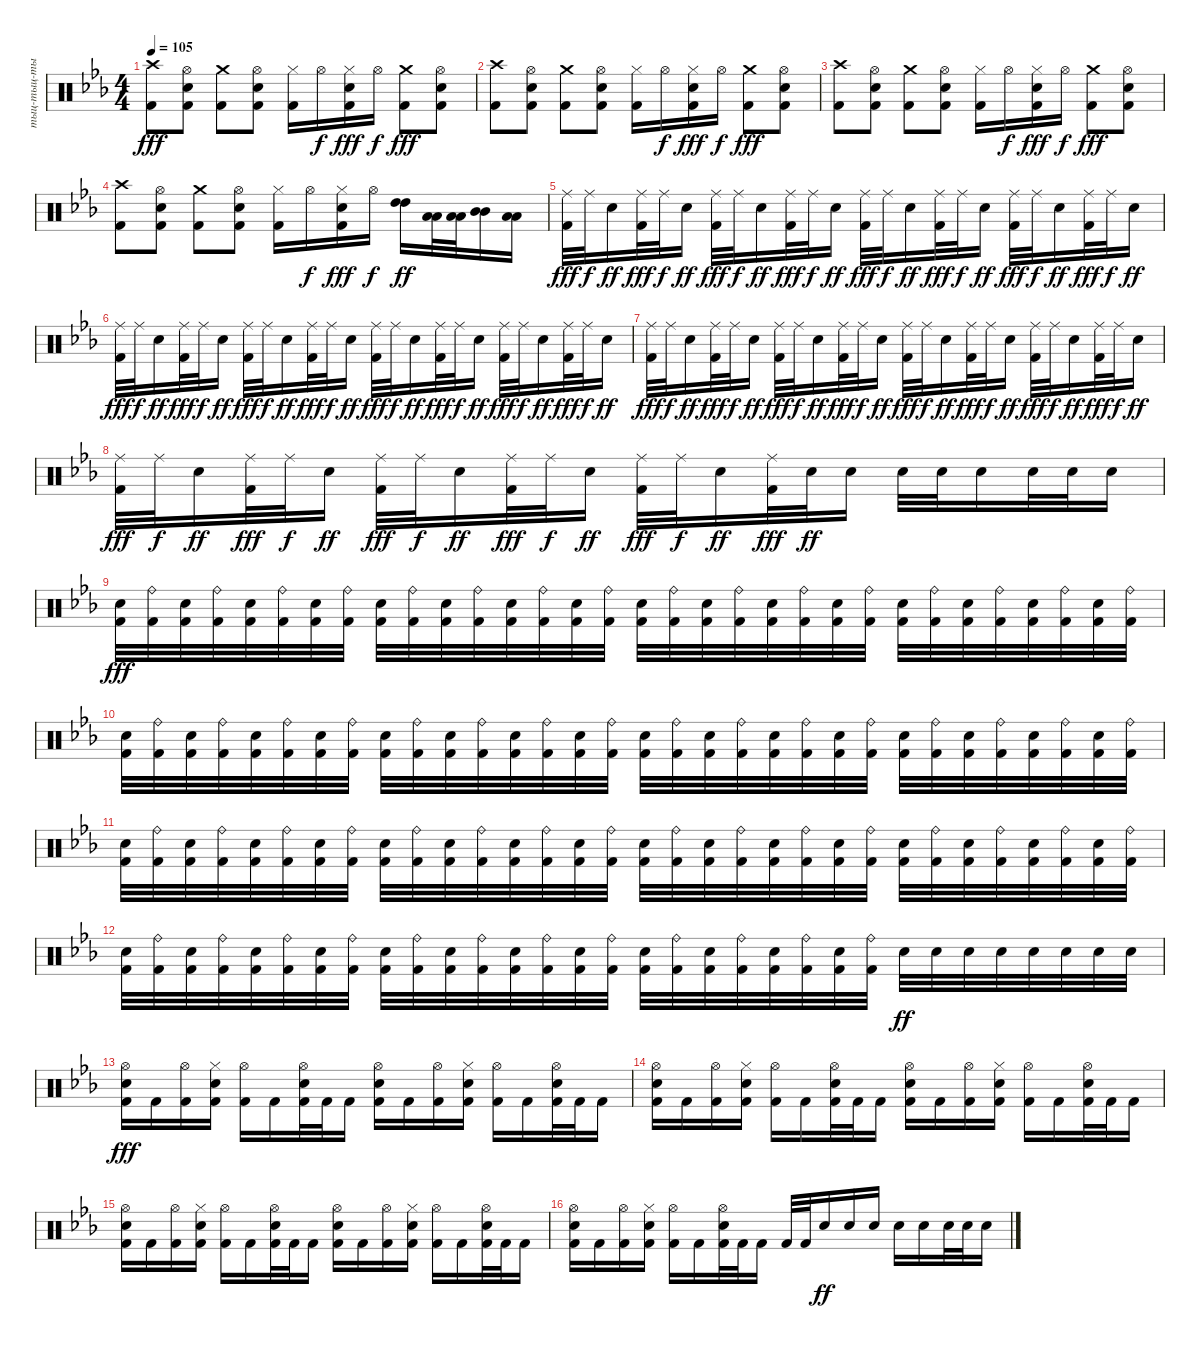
\track ("тыц-тыц-тыц..." "тыц-тыц-ты") {instrument percussion}
\staff
\articulation defaults
\ts (4 4)
\tempo 105
\clef neutral
\ks cminor
("Crash high (hit)" "Kick (hit) 2").8{dy fff} ("Hi-Hat (open)" "Electric Snare (hit)" "Kick (hit) 2").8 ("Crash medium (hit)" "Kick (hit) 2").8 ("Hi-Hat (open)" "Electric Snare (hit)" "Kick (hit) 2").8 ("Hi-Hat (closed)" "Kick (hit) 2").16 "Hi-Hat (open)".16{dy f} ("Hi-Hat (closed)" "Electric Snare (hit)" "Kick (hit) 2").16{dy fff} "Hi-Hat (open)".16{dy f} ("Crash medium (hit)" "Kick (hit) 2").8{dy fff} ("Hi-Hat (open)" "Electric Snare (hit)" "Kick (hit) 2").8 |
("Crash high (hit)" "Kick (hit) 2").8 ("Hi-Hat (open)" "Electric Snare (hit)" "Kick (hit) 2").8 ("Crash medium (hit)" "Kick (hit) 2").8 ("Hi-Hat (open)" "Electric Snare (hit)" "Kick (hit) 2").8 ("Hi-Hat (closed)" "Kick (hit) 2").16 "Hi-Hat (open)".16{dy f} ("Hi-Hat (closed)" "Electric Snare (hit)" "Kick (hit) 2").16{dy fff} "Hi-Hat (open)".16{dy f} ("Crash medium (hit)" "Kick (hit) 2").8{dy fff} ("Hi-Hat (open)" "Electric Snare (hit)" "Kick (hit) 2").8 |
("Crash high (hit)" "Kick (hit) 2").8 ("Hi-Hat (open)" "Electric Snare (hit)" "Kick (hit) 2").8 ("Crash medium (hit)" "Kick (hit) 2").8 ("Hi-Hat (open)" "Electric Snare (hit)" "Kick (hit) 2").8 ("Hi-Hat (closed)" "Kick (hit) 2").16 "Hi-Hat (open)".16{dy f} ("Hi-Hat (closed)" "Electric Snare (hit)" "Kick (hit) 2").16{dy fff} "Hi-Hat (open)".16{dy f} ("Crash medium (hit)" "Kick (hit) 2").8{dy fff} ("Hi-Hat (open)" "Electric Snare (hit)" "Kick (hit) 2").8 |
("Crash high (hit)" "Kick (hit) 2").8 ("Hi-Hat (open)" "Electric Snare (hit)" "Kick (hit) 2").8 ("Crash medium (hit)" "Kick (hit) 2").8 ("Hi-Hat (open)" "Electric Snare (hit)" "Kick (hit) 2").8 ("Hi-Hat (closed)" "Kick (hit) 2").16 "Hi-Hat (open)".16{dy f} ("Hi-Hat (closed)" "Electric Snare (hit)" "Kick (hit) 2").16{dy fff} "Hi-Hat (open)".16{dy f} ("High Tom (hit)" "High Tom (hit)").16{dy ff} ("Low Tom (hit)" "Low Tom (hit)").32 ("Low Tom (hit)" "Low Tom (hit)").32 ("Mid Tom (hit)" "Mid Tom (hit)").16 ("Low Tom (hit)" "Low Tom (hit)").16 |
("Ride (middle)" "Kick (hit) 2").32{dy fff} "Ride (middle)".32{dy f} "Electric Snare (hit)".16{dy ff} ("Ride (middle)" "Kick (hit) 2").32{dy fff} "Ride (middle)".32{dy f} "Electric Snare (hit)".16{dy ff} ("Ride (middle)" "Kick (hit) 2").32{dy fff} "Ride (middle)".32{dy f} "Electric Snare (hit)".16{dy ff} ("Ride (middle)" "Kick (hit) 2").32{dy fff} "Ride (middle)".32{dy f} "Electric Snare (hit)".16{dy ff} ("Ride (middle)" "Kick (hit) 2").32{dy fff} "Ride (middle)".32{dy f} "Electric Snare (hit)".16{dy ff} ("Ride (middle)" "Kick (hit) 2").32{dy fff} "Ride (middle)".32{dy f} "Electric Snare (hit)".16{dy ff} ("Ride (middle)" "Kick (hit) 2").32{dy fff} "Ride (middle)".32{dy f} "Electric Snare (hit)".16{dy ff} ("Ride (middle)" "Kick (hit) 2").32{dy fff} "Ride (middle)".32{dy f} "Electric Snare (hit)".16{dy ff} |
("Ride (middle)" "Kick (hit) 2").32{dy fff} "Ride (middle)".32{dy f} "Electric Snare (hit)".16{dy ff} ("Ride (middle)" "Kick (hit) 2").32{dy fff} "Ride (middle)".32{dy f} "Electric Snare (hit)".16{dy ff} ("Ride (middle)" "Kick (hit) 2").32{dy fff} "Ride (middle)".32{dy f} "Electric Snare (hit)".16{dy ff} ("Ride (middle)" "Kick (hit) 2").32{dy fff} "Ride (middle)".32{dy f} "Electric Snare (hit)".16{dy ff} ("Ride (middle)" "Kick (hit) 2").32{dy fff} "Ride (middle)".32{dy f} "Electric Snare (hit)".16{dy ff} ("Ride (middle)" "Kick (hit) 2").32{dy fff} "Ride (middle)".32{dy f} "Electric Snare (hit)".16{dy ff} ("Ride (middle)" "Kick (hit) 2").32{dy fff} "Ride (middle)".32{dy f} "Electric Snare (hit)".16{dy ff} ("Ride (middle)" "Kick (hit) 2").32{dy fff} "Ride (middle)".32{dy f} "Electric Snare (hit)".16{dy ff} |
("Ride (middle)" "Kick (hit) 2").32{dy fff} "Ride (middle)".32{dy f} "Electric Snare (hit)".16{dy ff} ("Ride (middle)" "Kick (hit) 2").32{dy fff} "Ride (middle)".32{dy f} "Electric Snare (hit)".16{dy ff} ("Ride (middle)" "Kick (hit) 2").32{dy fff} "Ride (middle)".32{dy f} "Electric Snare (hit)".16{dy ff} ("Ride (middle)" "Kick (hit) 2").32{dy fff} "Ride (middle)".32{dy f} "Electric Snare (hit)".16{dy ff} ("Ride (middle)" "Kick (hit) 2").32{dy fff} "Ride (middle)".32{dy f} "Electric Snare (hit)".16{dy ff} ("Ride (middle)" "Kick (hit) 2").32{dy fff} "Ride (middle)".32{dy f} "Electric Snare (hit)".16{dy ff} ("Ride (middle)" "Kick (hit) 2").32{dy fff} "Ride (middle)".32{dy f} "Electric Snare (hit)".16{dy ff} ("Ride (middle)" "Kick (hit) 2").32{dy fff} "Ride (middle)".32{dy f} "Electric Snare (hit)".16{dy ff} |
("Ride (middle)" "Kick (hit) 2").32{dy fff} "Ride (middle)".32{dy f} "Electric Snare (hit)".16{dy ff} ("Ride (middle)" "Kick (hit) 2").32{dy fff} "Ride (middle)".32{dy f} "Electric Snare (hit)".16{dy ff} ("Ride (middle)" "Kick (hit) 2").32{dy fff} "Ride (middle)".32{dy f} "Electric Snare (hit)".16{dy ff} ("Ride (middle)" "Kick (hit) 2").32{dy fff} "Ride (middle)".32{dy f} "Electric Snare (hit)".16{dy ff} ("Ride (middle)" "Kick (hit) 2").32{dy fff} "Ride (middle)".32{dy f} "Electric Snare (hit)".16{dy ff} ("Ride (middle)" "Kick (hit) 2").32{dy fff} "Electric Snare (hit)".32{dy ff} "Electric Snare (hit)".16 "Electric Snare (hit)".32 "Electric Snare (hit)".32 "Electric Snare (hit)".16 "Electric Snare (hit)".32 "Electric Snare (hit)".32 "Electric Snare (hit)".16 |
("Electric Snare (hit)" "Kick (hit) 2").32{dy fff} ("Ride (bell)" "Kick (hit) 2").32 ("Electric Snare (hit)" "Kick (hit) 2").32 ("Ride (bell)" "Kick (hit) 2").32 ("Electric Snare (hit)" "Kick (hit) 2").32 ("Ride (bell)" "Kick (hit) 2").32 ("Electric Snare (hit)" "Kick (hit) 2").32 ("Ride (bell)" "Kick (hit) 2").32 ("Electric Snare (hit)" "Kick (hit) 2").32 ("Ride (bell)" "Kick (hit) 2").32 ("Electric Snare (hit)" "Kick (hit) 2").32 ("Ride (bell)" "Kick (hit) 2").32 ("Electric Snare (hit)" "Kick (hit) 2").32 ("Ride (bell)" "Kick (hit) 2").32 ("Electric Snare (hit)" "Kick (hit) 2").32 ("Ride (bell)" "Kick (hit) 2").32 ("Electric Snare (hit)" "Kick (hit) 2").32 ("Ride (bell)" "Kick (hit) 2").32 ("Electric Snare (hit)" "Kick (hit) 2").32 ("Ride (bell)" "Kick (hit) 2").32 ("Electric Snare (hit)" "Kick (hit) 2").32 ("Ride (bell)" "Kick (hit) 2").32 ("Electric Snare (hit)" "Kick (hit) 2").32 ("Ride (bell)" "Kick (hit) 2").32 ("Electric Snare (hit)" "Kick (hit) 2").32 ("Ride (bell)" "Kick (hit) 2").32 ("Electric Snare (hit)" "Kick (hit) 2").32 ("Ride (bell)" "Kick (hit) 2").32 ("Electric Snare (hit)" "Kick (hit) 2").32 ("Ride (bell)" "Kick (hit) 2").32 ("Electric Snare (hit)" "Kick (hit) 2").32 ("Ride (bell)" "Kick (hit) 2").32 |
("Electric Snare (hit)" "Kick (hit) 2").32 ("Ride (bell)" "Kick (hit) 2").32 ("Electric Snare (hit)" "Kick (hit) 2").32 ("Ride (bell)" "Kick (hit) 2").32 ("Electric Snare (hit)" "Kick (hit) 2").32 ("Ride (bell)" "Kick (hit) 2").32 ("Electric Snare (hit)" "Kick (hit) 2").32 ("Ride (bell)" "Kick (hit) 2").32 ("Electric Snare (hit)" "Kick (hit) 2").32 ("Ride (bell)" "Kick (hit) 2").32 ("Electric Snare (hit)" "Kick (hit) 2").32 ("Ride (bell)" "Kick (hit) 2").32 ("Electric Snare (hit)" "Kick (hit) 2").32 ("Ride (bell)" "Kick (hit) 2").32 ("Electric Snare (hit)" "Kick (hit) 2").32 ("Ride (bell)" "Kick (hit) 2").32 ("Electric Snare (hit)" "Kick (hit) 2").32 ("Ride (bell)" "Kick (hit) 2").32 ("Electric Snare (hit)" "Kick (hit) 2").32 ("Ride (bell)" "Kick (hit) 2").32 ("Electric Snare (hit)" "Kick (hit) 2").32 ("Ride (bell)" "Kick (hit) 2").32 ("Electric Snare (hit)" "Kick (hit) 2").32 ("Ride (bell)" "Kick (hit) 2").32 ("Electric Snare (hit)" "Kick (hit) 2").32 ("Ride (bell)" "Kick (hit) 2").32 ("Electric Snare (hit)" "Kick (hit) 2").32 ("Ride (bell)" "Kick (hit) 2").32 ("Electric Snare (hit)" "Kick (hit) 2").32 ("Ride (bell)" "Kick (hit) 2").32 ("Electric Snare (hit)" "Kick (hit) 2").32 ("Ride (bell)" "Kick (hit) 2").32 |
("Electric Snare (hit)" "Kick (hit) 2").32 ("Ride (bell)" "Kick (hit) 2").32 ("Electric Snare (hit)" "Kick (hit) 2").32 ("Ride (bell)" "Kick (hit) 2").32 ("Electric Snare (hit)" "Kick (hit) 2").32 ("Ride (bell)" "Kick (hit) 2").32 ("Electric Snare (hit)" "Kick (hit) 2").32 ("Ride (bell)" "Kick (hit) 2").32 ("Electric Snare (hit)" "Kick (hit) 2").32 ("Ride (bell)" "Kick (hit) 2").32 ("Electric Snare (hit)" "Kick (hit) 2").32 ("Ride (bell)" "Kick (hit) 2").32 ("Electric Snare (hit)" "Kick (hit) 2").32 ("Ride (bell)" "Kick (hit) 2").32 ("Electric Snare (hit)" "Kick (hit) 2").32 ("Ride (bell)" "Kick (hit) 2").32 ("Electric Snare (hit)" "Kick (hit) 2").32 ("Ride (bell)" "Kick (hit) 2").32 ("Electric Snare (hit)" "Kick (hit) 2").32 ("Ride (bell)" "Kick (hit) 2").32 ("Electric Snare (hit)" "Kick (hit) 2").32 ("Ride (bell)" "Kick (hit) 2").32 ("Electric Snare (hit)" "Kick (hit) 2").32 ("Ride (bell)" "Kick (hit) 2").32 ("Electric Snare (hit)" "Kick (hit) 2").32 ("Ride (bell)" "Kick (hit) 2").32 ("Electric Snare (hit)" "Kick (hit) 2").32 ("Ride (bell)" "Kick (hit) 2").32 ("Electric Snare (hit)" "Kick (hit) 2").32 ("Ride (bell)" "Kick (hit) 2").32 ("Electric Snare (hit)" "Kick (hit) 2").32 ("Ride (bell)" "Kick (hit) 2").32 |
("Electric Snare (hit)" "Kick (hit) 2").32 ("Ride (bell)" "Kick (hit) 2").32 ("Electric Snare (hit)" "Kick (hit) 2").32 ("Ride (bell)" "Kick (hit) 2").32 ("Electric Snare (hit)" "Kick (hit) 2").32 ("Ride (bell)" "Kick (hit) 2").32 ("Electric Snare (hit)" "Kick (hit) 2").32 ("Ride (bell)" "Kick (hit) 2").32 ("Electric Snare (hit)" "Kick (hit) 2").32 ("Ride (bell)" "Kick (hit) 2").32 ("Electric Snare (hit)" "Kick (hit) 2").32 ("Ride (bell)" "Kick (hit) 2").32 ("Electric Snare (hit)" "Kick (hit) 2").32 ("Ride (bell)" "Kick (hit) 2").32 ("Electric Snare (hit)" "Kick (hit) 2").32 ("Ride (bell)" "Kick (hit) 2").32 ("Electric Snare (hit)" "Kick (hit) 2").32 ("Ride (bell)" "Kick (hit) 2").32 ("Electric Snare (hit)" "Kick (hit) 2").32 ("Ride (bell)" "Kick (hit) 2").32 ("Electric Snare (hit)" "Kick (hit) 2").32 ("Ride (bell)" "Kick (hit) 2").32 ("Electric Snare (hit)" "Kick (hit) 2").32 ("Ride (bell)" "Kick (hit) 2").32 "Electric Snare (hit)".32{dy ff} "Electric Snare (hit)".32 "Electric Snare (hit)".32 "Electric Snare (hit)".32 "Electric Snare (hit)".32 "Electric Snare (hit)".32 "Electric Snare (hit)".32 "Electric Snare (hit)".32 |
("Hi-Hat (open)" "Electric Snare (hit)" "Kick (hit) 2").16{dy fff} "Kick (hit) 2".16 ("Hi-Hat (open)" "Kick (hit) 2").16 ("Hi-Hat (closed)" "Electric Snare (hit)" "Kick (hit) 2").16 ("Hi-Hat (open)" "Kick (hit) 2").16 "Kick (hit) 2".16 ("Hi-Hat (open)" "Electric Snare (hit)" "Kick (hit) 2").32 "Kick (hit) 2".32 "Kick (hit) 2".16 ("Hi-Hat (open)" "Electric Snare (hit)" "Kick (hit) 2").16 "Kick (hit) 2".16 ("Hi-Hat (open)" "Kick (hit) 2").16 ("Hi-Hat (closed)" "Electric Snare (hit)" "Kick (hit) 2").16 ("Hi-Hat (open)" "Kick (hit) 2").16 "Kick (hit) 2".16 ("Hi-Hat (open)" "Electric Snare (hit)" "Kick (hit) 2").32 "Kick (hit) 2".32 "Kick (hit) 2".16 |
("Hi-Hat (open)" "Electric Snare (hit)" "Kick (hit) 2").16 "Kick (hit) 2".16 ("Hi-Hat (open)" "Kick (hit) 2").16 ("Hi-Hat (closed)" "Electric Snare (hit)" "Kick (hit) 2").16 ("Hi-Hat (open)" "Kick (hit) 2").16 "Kick (hit) 2".16 ("Hi-Hat (open)" "Electric Snare (hit)" "Kick (hit) 2").32 "Kick (hit) 2".32 "Kick (hit) 2".16 ("Hi-Hat (open)" "Electric Snare (hit)" "Kick (hit) 2").16 "Kick (hit) 2".16 ("Hi-Hat (open)" "Kick (hit) 2").16 ("Hi-Hat (closed)" "Electric Snare (hit)" "Kick (hit) 2").16 ("Hi-Hat (open)" "Kick (hit) 2").16 "Kick (hit) 2".16 ("Hi-Hat (open)" "Electric Snare (hit)" "Kick (hit) 2").32 "Kick (hit) 2".32 "Kick (hit) 2".16 |
("Hi-Hat (open)" "Electric Snare (hit)" "Kick (hit) 2").16 "Kick (hit) 2".16 ("Hi-Hat (open)" "Kick (hit) 2").16 ("Hi-Hat (closed)" "Electric Snare (hit)" "Kick (hit) 2").16 ("Hi-Hat (open)" "Kick (hit) 2").16 "Kick (hit) 2".16 ("Hi-Hat (open)" "Electric Snare (hit)" "Kick (hit) 2").32 "Kick (hit) 2".32 "Kick (hit) 2".16 ("Hi-Hat (open)" "Electric Snare (hit)" "Kick (hit) 2").16 "Kick (hit) 2".16 ("Hi-Hat (open)" "Kick (hit) 2").16 ("Hi-Hat (closed)" "Electric Snare (hit)" "Kick (hit) 2").16 ("Hi-Hat (open)" "Kick (hit) 2").16 "Kick (hit) 2".16 ("Hi-Hat (open)" "Electric Snare (hit)" "Kick (hit) 2").32 "Kick (hit) 2".32 "Kick (hit) 2".16 |
("Hi-Hat (open)" "Electric Snare (hit)" "Kick (hit) 2").16 "Kick (hit) 2".16 ("Hi-Hat (open)" "Kick (hit) 2").16 ("Hi-Hat (closed)" "Electric Snare (hit)" "Kick (hit) 2").16 ("Hi-Hat (open)" "Kick (hit) 2").16 "Kick (hit) 2".16 ("Hi-Hat (open)" "Electric Snare (hit)" "Kick (hit) 2").32 "Kick (hit) 2".32 "Kick (hit) 2".16 "Kick (hit) 2".32 "Kick (hit) 2".32 "Electric Snare (hit)".16{dy ff} "Electric Snare (hit)".16 "Electric Snare (hit)".16 "Electric Snare (hit)".16 "Electric Snare (hit)".16 "Electric Snare (hit)".32 "Electric Snare (hit)".32 "Electric Snare (hit)".16
